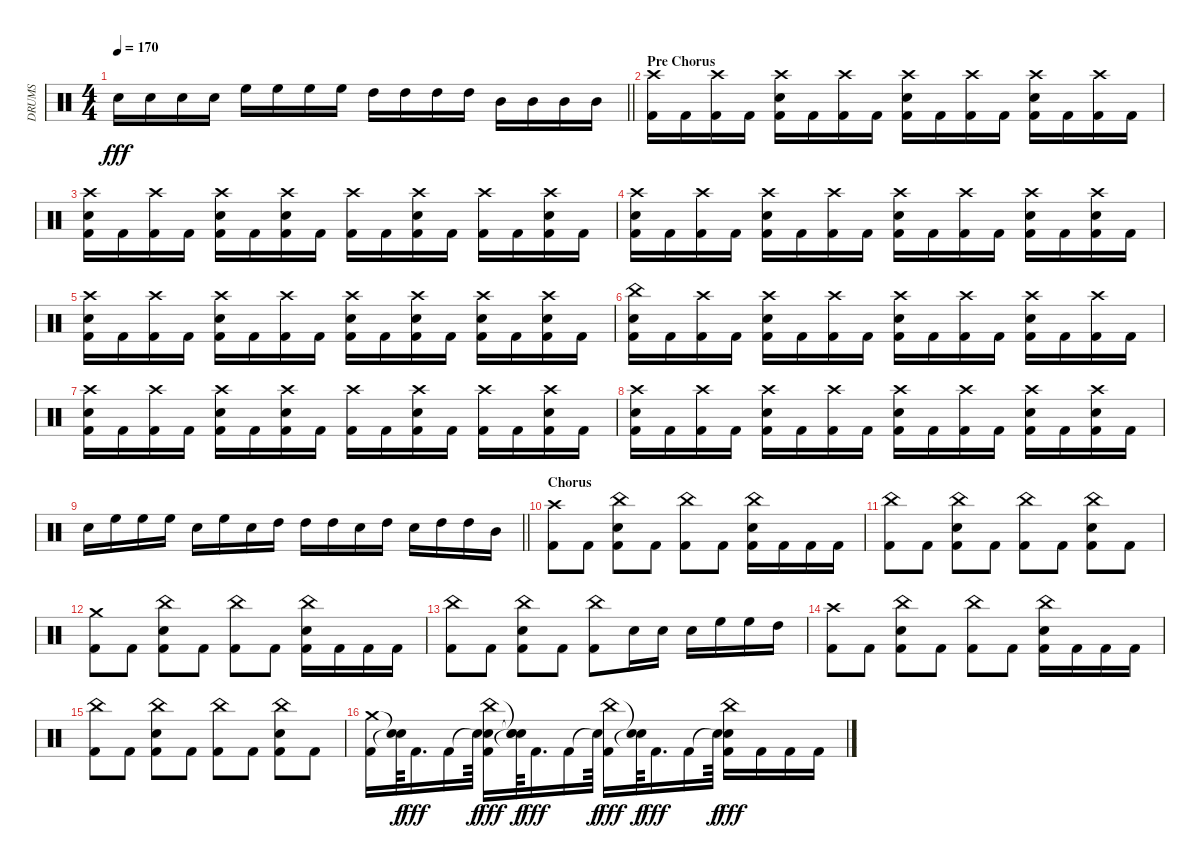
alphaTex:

\track ("DRUMS" "DRUMS") {instrument percussion}
\staff {score}
\articulation defaults
\ts (4 4)
\tempo 170
\clef neutral
\barLineRight lightlight
\ks c "Snare (hit) 2".16{dy fff} "Snare (hit) 2".16 "Snare (hit) 2".16 "Snare (hit) 2".16 "High Floor Tom (hit)".16 "High Floor Tom (hit)".16 "High Floor Tom (hit)".16 "High Floor Tom (hit)".16 "High Tom (hit)".16 "High Tom (hit)".16 "High Tom (hit)".16 "High Tom (hit)".16 "Mid Tom (hit)".16 "Mid Tom (hit)".16 "Mid Tom (hit)".16 "Mid Tom (hit)".16
|
\section ("" "Pre Chorus")
("Kick (hit) 2" "Crash high (hit)").16 "Kick (hit) 2".16 ("Crash high (hit)" "Kick (hit) 2").16 "Kick (hit) 2".16 ("Crash high (hit)" "Kick (hit) 2" "Snare (hit) 2").16 "Kick (hit) 2".16 ("Kick (hit) 2" "Crash high (hit)").16 "Kick (hit) 2".16 ("Kick (hit) 2" "Snare (hit) 2" "Crash high (hit)").16 "Kick (hit) 2".16 ("Kick (hit) 2" "Crash high (hit)").16 "Kick (hit) 2".16 ("Kick (hit) 2" "Crash high (hit)" "Snare (hit) 2").16 "Kick (hit) 2".16 ("Crash high (hit)" "Kick (hit) 2").16 "Kick (hit) 2".16 |
("Snare (hit) 2" "Crash high (hit)" "Kick (hit) 2").16 "Kick (hit) 2".16 ("Kick (hit) 2" "Crash high (hit)").16 "Kick (hit) 2".16 ("Kick (hit) 2" "Crash high (hit)" "Snare (hit) 2").16 "Kick (hit) 2".16 ("Kick (hit) 2" "Crash high (hit)" "Snare (hit) 2").16 "Kick (hit) 2".16 ("Crash high (hit)" "Kick (hit) 2").16 "Kick (hit) 2".16 ("Kick (hit) 2" "Snare (hit) 2" "Crash high (hit)").16 "Kick (hit) 2".16 ("Kick (hit) 2" "Crash high (hit)").16 "Kick (hit) 2".16 ("Snare (hit) 2" "Kick (hit) 2" "Crash high (hit)").16 "Kick (hit) 2".16 |
("Snare (hit) 2" "Kick (hit) 2" "Crash high (hit)").16 "Kick (hit) 2".16 ("Crash high (hit)" "Kick (hit) 2").16 "Kick (hit) 2".16 ("Kick (hit) 2" "Snare (hit) 2" "Crash high (hit)").16 "Kick (hit) 2".16 ("Kick (hit) 2" "Crash high (hit)").16 "Kick (hit) 2".16 ("Kick (hit) 2" "Snare (hit) 2" "Crash high (hit)").16 "Kick (hit) 2".16 ("Kick (hit) 2" "Crash high (hit)").16 "Kick (hit) 2".16 ("Snare (hit) 2" "Kick (hit) 2" "Crash high (hit)").16 "Kick (hit) 2".16 ("Snare (hit) 2" "Kick (hit) 2" "Crash high (hit)").16 "Kick (hit) 2".16 |
("Snare (hit) 2" "Kick (hit) 2" "Crash high (hit)").16 "Kick (hit) 2".16 ("Crash high (hit)" "Kick (hit) 2").16 "Kick (hit) 2".16 ("Kick (hit) 2" "Snare (hit) 2" "Crash high (hit)").16 "Kick (hit) 2".16 ("Kick (hit) 2" "Crash high (hit)").16 "Kick (hit) 2".16 ("Snare (hit) 2" "Kick (hit) 2" "Crash high (hit)").16 "Kick (hit) 2".16 ("Snare (hit) 2" "Kick (hit) 2" "Crash high (hit)").16 "Kick (hit) 2".16 ("Snare (hit) 2" "Kick (hit) 2" "Crash high (hit)").16 "Kick (hit) 2".16 ("Snare (hit) 2" "Kick (hit) 2" "Crash high (hit)").16 "Kick (hit) 2".16 |
("China (hit)" "Snare (hit) 2" "Kick (hit) 2").16 "Kick (hit) 2".16 ("Kick (hit) 2" "Crash high (hit)").16 "Kick (hit) 2".16 ("Crash high (hit)" "Kick (hit) 2" "Snare (hit) 2").16 "Kick (hit) 2".16 ("Crash high (hit)" "Kick (hit) 2").16 "Kick (hit) 2".16 ("Crash high (hit)" "Snare (hit) 2" "Kick (hit) 2").16 "Kick (hit) 2".16 ("Kick (hit) 2" "Crash high (hit)").16 "Kick (hit) 2".16 ("Snare (hit) 2" "Kick (hit) 2" "Crash high (hit)").16 "Kick (hit) 2".16 ("Crash high (hit)" "Kick (hit) 2").16 "Kick (hit) 2".16 |
("Kick (hit) 2" "Snare (hit) 2" "Crash high (hit)").16 "Kick (hit) 2".16 ("Kick (hit) 2" "Crash high (hit)").16 "Kick (hit) 2".16 ("Snare (hit) 2" "Kick (hit) 2" "Crash high (hit)").16 "Kick (hit) 2".16 ("Snare (hit) 2" "Kick (hit) 2" "Crash high (hit)").16 "Kick (hit) 2".16 ("Crash high (hit)" "Kick (hit) 2").16 "Kick (hit) 2".16 ("Kick (hit) 2" "Snare (hit) 2" "Crash high (hit)").16 "Kick (hit) 2".16 ("Kick (hit) 2" "Crash high (hit)").16 "Kick (hit) 2".16 ("Snare (hit) 2" "Kick (hit) 2" "Crash high (hit)").16 "Kick (hit) 2".16 |
("Snare (hit) 2" "Kick (hit) 2" "Crash high (hit)").16 "Kick (hit) 2".16 ("Crash high (hit)" "Kick (hit) 2").16 "Kick (hit) 2".16 ("Kick (hit) 2" "Snare (hit) 2" "Crash high (hit)").16 "Kick (hit) 2".16 ("Kick (hit) 2" "Crash high (hit)").16 "Kick (hit) 2".16 ("Kick (hit) 2" "Snare (hit) 2" "Crash high (hit)").16 "Kick (hit) 2".16 ("Kick (hit) 2" "Crash high (hit)").16 "Kick (hit) 2".16 ("Snare (hit) 2" "Kick (hit) 2" "Crash high (hit)").16 "Kick (hit) 2".16 ("Snare (hit) 2" "Kick (hit) 2" "Crash high (hit)").16 "Kick (hit) 2".16 |
\barLineRight lightlight "Snare (hit) 2".16 "High Floor Tom (hit)".16 "High Floor Tom (hit)".16 "High Floor Tom (hit)".16 "Snare (hit) 2".16 "High Floor Tom (hit)".16 "Snare (hit) 2".16 "High Tom (hit)".16 "High Tom (hit)".16 "High Tom (hit)".16 "Snare (hit) 2".16 "High Tom (hit)".16 "Snare (hit) 2".16 "High Tom (hit)".16 "High Tom (hit)".16 "Mid Tom (hit)".16
|
\section ("" "Chorus")
("Crash high (hit)" "Kick (hit) 2").8 "Kick (hit) 2".8 ("China (hit)" "Snare (hit) 2" "Kick (hit) 2").8 "Kick (hit) 2".8 ("Kick (hit) 2" "China (hit)").8 "Kick (hit) 2".8 ("Snare (hit) 2" "China (hit)" "Kick (hit) 2").16 "Kick (hit) 2".16 "Kick (hit) 2".16 "Kick (hit) 2".16 |
("Kick (hit) 2" "China (hit)").8 "Kick (hit) 2".8 ("China (hit)" "Snare (hit) 2" "Kick (hit) 2").8 "Kick (hit) 2".8 ("Kick (hit) 2" "China (hit)").8 "Kick (hit) 2".8 ("Snare (hit) 2" "Kick (hit) 2" "China (hit)").8 "Kick (hit) 2".8 |
("Kick (hit) 2" "Crash medium (hit)").8 "Kick (hit) 2".8 ("China (hit)" "Snare (hit) 2" "Kick (hit) 2").8 "Kick (hit) 2".8 ("Kick (hit) 2" "China (hit)").8 "Kick (hit) 2".8 ("Snare (hit) 2" "China (hit)" "Kick (hit) 2").16 "Kick (hit) 2".16 "Kick (hit) 2".16 "Kick (hit) 2".16 |
("Kick (hit) 2" "China (hit)").8 "Kick (hit) 2".8 ("China (hit)" "Snare (hit) 2" "Kick (hit) 2").8 "Kick (hit) 2".8 ("Kick (hit) 2" "China (hit)").8 "Snare (hit) 2".16 "Snare (hit) 2".16 "Snare (hit) 2".16 "High Floor Tom (hit)".16 "High Floor Tom (hit)".16 "High Tom (hit)".16 |
("Kick (hit) 2" "Crash high (hit)").8 "Kick (hit) 2".8 ("China (hit)" "Snare (hit) 2" "Kick (hit) 2").8 "Kick (hit) 2".8 ("Kick (hit) 2" "China (hit)").8 "Kick (hit) 2".8 ("Snare (hit) 2" "China (hit)" "Kick (hit) 2").16 "Kick (hit) 2".16 "Kick (hit) 2".16 "Kick (hit) 2".16 |
("Kick (hit) 2" "China (hit)").8 "Kick (hit) 2".8 ("China (hit)" "Snare (hit) 2" "Kick (hit) 2").8 "Kick (hit) 2".8 ("Kick (hit) 2" "China (hit)").8 "Kick (hit) 2".8 ("Snare (hit) 2" "Kick (hit) 2" "China (hit)").8 "Kick (hit) 2".8 |
("Kick (hit) 2" "Crash medium (hit)").16 ("Snare (hit)"{t} "Snare (hit)"{t}).64{dy f} "Kick (hit) 2".16{d dy fff} "Kick (hit) 2".16 "Snare (hit)"{t}.64{dy f} ("Snare (hit) 2" "China (hit)" "Kick (hit) 2").16{dy fff} ("Snare (hit)"{t} "Snare (hit)"{t} "Snare (hit)"{t}).64{dy f} "Kick (hit) 2".16{d dy fff} "Kick (hit) 2".16 "Snare (hit)"{t}.64{dy f} ("Kick (hit) 2" "China (hit)").16{dy fff} ("Snare (hit)"{t} "Snare (hit)"{t}).64{dy f} "Kick (hit) 2".16{d dy fff} "Kick (hit) 2".16 "Snare (hit)"{t}.64{dy f} ("Kick (hit) 2" "Snare (hit) 2" "China (hit)").16{dy fff} "Kick (hit) 2".16 "Kick (hit) 2".16 "Kick (hit) 2".16
